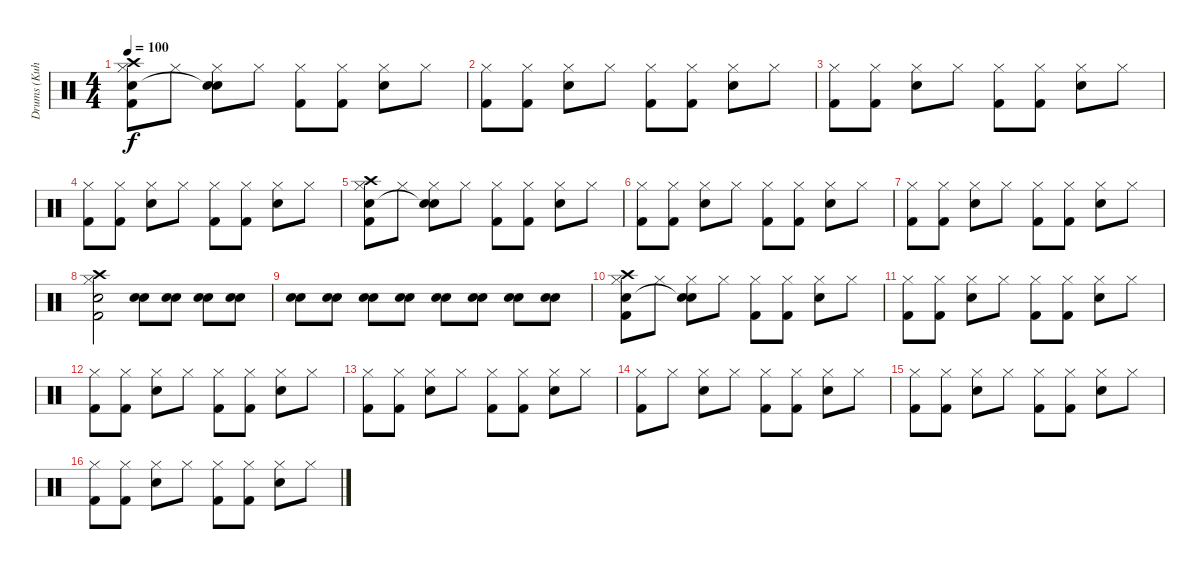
\track ("Drums (Kuhara)" "Drums (Kuh") {instrument percussion}
\staff {score}
\articulation defaults
\ts (4 4)
\tempo 100
\clef neutral
\ks c
("Hi-Hat (closed)" "Electric Snare (hit)" "Crash high (hit)" "Kick (hit) 2").8{dy f} "Hi-Hat (closed)".8 ("Hi-Hat (closed)" "Snare (hit)"{t} "Electric Snare (hit)").8 "Hi-Hat (closed)".8 ("Hi-Hat (closed)" "Kick (hit) 2").8 ("Hi-Hat (closed)" "Kick (hit) 2").8 ("Hi-Hat (closed)" "Electric Snare (hit)").8 "Hi-Hat (closed)".8 |
("Hi-Hat (closed)" "Kick (hit) 2").8 ("Hi-Hat (closed)" "Kick (hit) 2").8 ("Hi-Hat (closed)" "Electric Snare (hit)").8 "Hi-Hat (closed)".8 ("Hi-Hat (closed)" "Kick (hit) 2").8 ("Hi-Hat (closed)" "Kick (hit) 2").8 ("Hi-Hat (closed)" "Electric Snare (hit)").8 "Hi-Hat (closed)".8 |
("Hi-Hat (closed)" "Kick (hit) 2").8 ("Hi-Hat (closed)" "Kick (hit) 2").8 ("Hi-Hat (closed)" "Electric Snare (hit)").8 "Hi-Hat (closed)".8 ("Hi-Hat (closed)" "Kick (hit) 2").8 ("Hi-Hat (closed)" "Kick (hit) 2").8 ("Hi-Hat (closed)" "Electric Snare (hit)").8 "Hi-Hat (closed)".8 |
("Hi-Hat (closed)" "Kick (hit) 2").8 ("Hi-Hat (closed)" "Kick (hit) 2").8 ("Hi-Hat (closed)" "Electric Snare (hit)").8 "Hi-Hat (closed)".8 ("Hi-Hat (closed)" "Kick (hit) 2").8 ("Hi-Hat (closed)" "Kick (hit) 2").8 ("Hi-Hat (closed)" "Electric Snare (hit)").8 "Hi-Hat (closed)".8 |
("Hi-Hat (closed)" "Electric Snare (hit)" "Crash high (hit)" "Kick (hit) 2").8 "Hi-Hat (closed)".8 ("Hi-Hat (closed)" "Snare (hit)"{t} "Electric Snare (hit)").8 "Hi-Hat (closed)".8 ("Hi-Hat (closed)" "Kick (hit) 2").8 ("Hi-Hat (closed)" "Kick (hit) 2").8 ("Hi-Hat (closed)" "Electric Snare (hit)").8 "Hi-Hat (closed)".8 |
("Hi-Hat (closed)" "Kick (hit) 2").8 ("Hi-Hat (closed)" "Kick (hit) 2").8 ("Hi-Hat (closed)" "Electric Snare (hit)").8 "Hi-Hat (closed)".8 ("Hi-Hat (closed)" "Kick (hit) 2").8 ("Hi-Hat (closed)" "Kick (hit) 2").8 ("Hi-Hat (closed)" "Electric Snare (hit)").8 "Hi-Hat (closed)".8 |
("Hi-Hat (closed)" "Kick (hit) 2").8 ("Hi-Hat (closed)" "Kick (hit) 2").8 ("Hi-Hat (closed)" "Electric Snare (hit)").8 "Hi-Hat (closed)".8 ("Hi-Hat (closed)" "Kick (hit) 2").8 ("Hi-Hat (closed)" "Kick (hit) 2").8 ("Hi-Hat (closed)" "Electric Snare (hit)").8 "Hi-Hat (closed)".8 |
("Hi-Hat (closed)" "Electric Snare (hit)" "Crash high (hit)" "Kick (hit) 2").2 ("Electric Snare (hit)" "Electric Snare (hit)").8{volume 0} ("Electric Snare (hit)" "Electric Snare (hit)").8{volume 16} ("Electric Snare (hit)" "Electric Snare (hit)").8 ("Electric Snare (hit)" "Electric Snare (hit)").8 |
("Electric Snare (hit)" "Electric Snare (hit)").8{volume 16} ("Electric Snare (hit)" "Electric Snare (hit)").8 ("Electric Snare (hit)" "Electric Snare (hit)").8 ("Electric Snare (hit)" "Electric Snare (hit)").8 ("Electric Snare (hit)" "Electric Snare (hit)").8 ("Electric Snare (hit)" "Electric Snare (hit)").8 ("Electric Snare (hit)" "Electric Snare (hit)").8 ("Electric Snare (hit)" "Electric Snare (hit)").8 |
("Hi-Hat (closed)" "Electric Snare (hit)" "Crash high (hit)" "Kick (hit) 2").8{volume 12} "Hi-Hat (closed)".8 ("Hi-Hat (closed)" "Snare (hit)"{t} "Electric Snare (hit)").8 "Hi-Hat (closed)".8 ("Hi-Hat (closed)" "Kick (hit) 2").8 ("Hi-Hat (closed)" "Kick (hit) 2").8 ("Hi-Hat (closed)" "Electric Snare (hit)").8 "Hi-Hat (closed)".8 |
("Hi-Hat (closed)" "Kick (hit) 2").8 ("Hi-Hat (closed)" "Kick (hit) 2").8 ("Hi-Hat (closed)" "Electric Snare (hit)").8 "Hi-Hat (closed)".8 ("Hi-Hat (closed)" "Kick (hit) 2").8 ("Hi-Hat (closed)" "Kick (hit) 2").8 ("Hi-Hat (closed)" "Electric Snare (hit)").8 "Hi-Hat (closed)".8 |
("Hi-Hat (closed)" "Kick (hit) 2").8 ("Hi-Hat (closed)" "Kick (hit) 2").8 ("Hi-Hat (closed)" "Electric Snare (hit)").8 "Hi-Hat (closed)".8 ("Hi-Hat (closed)" "Kick (hit) 2").8 ("Hi-Hat (closed)" "Kick (hit) 2").8 ("Hi-Hat (closed)" "Electric Snare (hit)").8 "Hi-Hat (closed)".8 |
("Hi-Hat (closed)" "Kick (hit) 2").8 ("Hi-Hat (closed)" "Kick (hit) 2").8 ("Hi-Hat (closed)" "Electric Snare (hit)").8 "Hi-Hat (closed)".8 ("Hi-Hat (closed)" "Kick (hit) 2").8 ("Hi-Hat (closed)" "Kick (hit) 2").8 ("Hi-Hat (closed)" "Electric Snare (hit)").8 "Hi-Hat (closed)".8 |
("Hi-Hat (closed)" "Kick (hit) 2").8 "Hi-Hat (closed)".8 ("Hi-Hat (closed)" "Electric Snare (hit)").8 "Hi-Hat (closed)".8 ("Hi-Hat (closed)" "Kick (hit) 2").8 ("Hi-Hat (closed)" "Kick (hit) 2").8 ("Hi-Hat (closed)" "Electric Snare (hit)").8 "Hi-Hat (closed)".8 |
("Hi-Hat (closed)" "Kick (hit) 2").8 ("Hi-Hat (closed)" "Kick (hit) 2").8 ("Hi-Hat (closed)" "Electric Snare (hit)").8 "Hi-Hat (closed)".8 ("Hi-Hat (closed)" "Kick (hit) 2").8 ("Hi-Hat (closed)" "Kick (hit) 2").8 ("Hi-Hat (closed)" "Electric Snare (hit)").8 "Hi-Hat (closed)".8 |
("Hi-Hat (closed)" "Kick (hit) 2").8 ("Hi-Hat (closed)" "Kick (hit) 2").8 ("Hi-Hat (closed)" "Electric Snare (hit)").8 "Hi-Hat (closed)".8 ("Hi-Hat (closed)" "Kick (hit) 2").8 ("Hi-Hat (closed)" "Kick (hit) 2").8 ("Hi-Hat (closed)" "Electric Snare (hit)").8 "Hi-Hat (closed)".8
